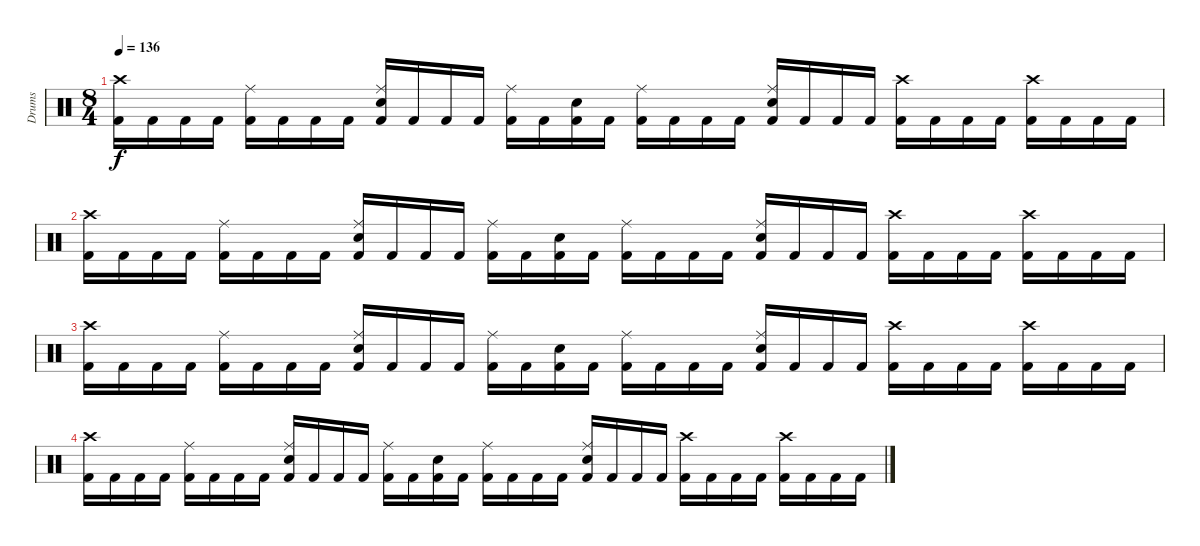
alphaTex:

\track ("Drums" "Drums") {instrument percussion}
\staff {score}
\articulation defaults
\ts (8 4)
\tempo 136
\clef neutral
\ks c
("Crash high (hit)" "Kick (hit) 2").16{dy f volume 10} "Kick (hit) 2".16 "Kick (hit) 2".16 "Kick (hit) 2".16 ("Ride (middle)" "Kick (hit) 2").16 "Kick (hit) 2".16 "Kick (hit) 2".16 "Kick (hit) 2".16 ("Ride (middle)" "Snare (hit) 2" "Kick (hit) 2").16 "Kick (hit) 2".16 "Kick (hit) 2".16 "Kick (hit) 2".16 ("Ride (middle)" "Kick (hit) 2").16 "Kick (hit) 2".16 ("Snare (hit) 2" "Kick (hit) 2").16 "Kick (hit) 2".16 ("Ride (middle)" "Kick (hit) 2").16 "Kick (hit) 2".16 "Kick (hit) 2".16 "Kick (hit) 2".16 ("Ride (middle)" "Snare (hit) 2" "Kick (hit) 2").16 "Kick (hit) 2".16 "Kick (hit) 2".16 "Kick (hit) 2".16 ("Crash high (hit)" "Kick (hit) 2").16 "Kick (hit) 2".16 "Kick (hit) 2".16 "Kick (hit) 2".16 ("Crash high (hit)" "Kick (hit) 2").16 "Kick (hit) 2".16 "Kick (hit) 2".16 "Kick (hit) 2".16 |
("Crash high (hit)" "Kick (hit) 2").16 "Kick (hit) 2".16 "Kick (hit) 2".16 "Kick (hit) 2".16 ("Ride (middle)" "Kick (hit) 2").16 "Kick (hit) 2".16 "Kick (hit) 2".16 "Kick (hit) 2".16 ("Ride (middle)" "Snare (hit) 2" "Kick (hit) 2").16 "Kick (hit) 2".16 "Kick (hit) 2".16 "Kick (hit) 2".16 ("Ride (middle)" "Kick (hit) 2").16 "Kick (hit) 2".16 ("Snare (hit) 2" "Kick (hit) 2").16 "Kick (hit) 2".16 ("Ride (middle)" "Kick (hit) 2").16 "Kick (hit) 2".16 "Kick (hit) 2".16 "Kick (hit) 2".16 ("Ride (middle)" "Snare (hit) 2" "Kick (hit) 2").16 "Kick (hit) 2".16 "Kick (hit) 2".16 "Kick (hit) 2".16 ("Crash high (hit)" "Kick (hit) 2").16 "Kick (hit) 2".16 "Kick (hit) 2".16 "Kick (hit) 2".16 ("Crash high (hit)" "Kick (hit) 2").16 "Kick (hit) 2".16 "Kick (hit) 2".16 "Kick (hit) 2".16 |
("Crash high (hit)" "Kick (hit) 2").16{volume 5} "Kick (hit) 2".16 "Kick (hit) 2".16 "Kick (hit) 2".16 ("Ride (middle)" "Kick (hit) 2").16 "Kick (hit) 2".16 "Kick (hit) 2".16 "Kick (hit) 2".16 ("Ride (middle)" "Snare (hit) 2" "Kick (hit) 2").16 "Kick (hit) 2".16 "Kick (hit) 2".16 "Kick (hit) 2".16 ("Ride (middle)" "Kick (hit) 2").16 "Kick (hit) 2".16 ("Snare (hit) 2" "Kick (hit) 2").16 "Kick (hit) 2".16 ("Ride (middle)" "Kick (hit) 2").16 "Kick (hit) 2".16 "Kick (hit) 2".16 "Kick (hit) 2".16 ("Ride (middle)" "Snare (hit) 2" "Kick (hit) 2").16 "Kick (hit) 2".16 "Kick (hit) 2".16 "Kick (hit) 2".16 ("Crash high (hit)" "Kick (hit) 2").16 "Kick (hit) 2".16 "Kick (hit) 2".16 "Kick (hit) 2".16 ("Crash high (hit)" "Kick (hit) 2").16 "Kick (hit) 2".16 "Kick (hit) 2".16 "Kick (hit) 2".16 |
("Crash high (hit)" "Kick (hit) 2").16{volume 0} "Kick (hit) 2".16 "Kick (hit) 2".16 "Kick (hit) 2".16 ("Ride (middle)" "Kick (hit) 2").16 "Kick (hit) 2".16 "Kick (hit) 2".16 "Kick (hit) 2".16 ("Ride (middle)" "Snare (hit) 2" "Kick (hit) 2").16 "Kick (hit) 2".16 "Kick (hit) 2".16 "Kick (hit) 2".16 ("Ride (middle)" "Kick (hit) 2").16 "Kick (hit) 2".16 ("Snare (hit) 2" "Kick (hit) 2").16 "Kick (hit) 2".16 ("Ride (middle)" "Kick (hit) 2").16 "Kick (hit) 2".16 "Kick (hit) 2".16 "Kick (hit) 2".16 ("Ride (middle)" "Snare (hit) 2" "Kick (hit) 2").16 "Kick (hit) 2".16 "Kick (hit) 2".16 "Kick (hit) 2".16 ("Crash high (hit)" "Kick (hit) 2").16 "Kick (hit) 2".16 "Kick (hit) 2".16 "Kick (hit) 2".16 ("Crash high (hit)" "Kick (hit) 2").16 "Kick (hit) 2".16 "Kick (hit) 2".16 "Kick (hit) 2".16
